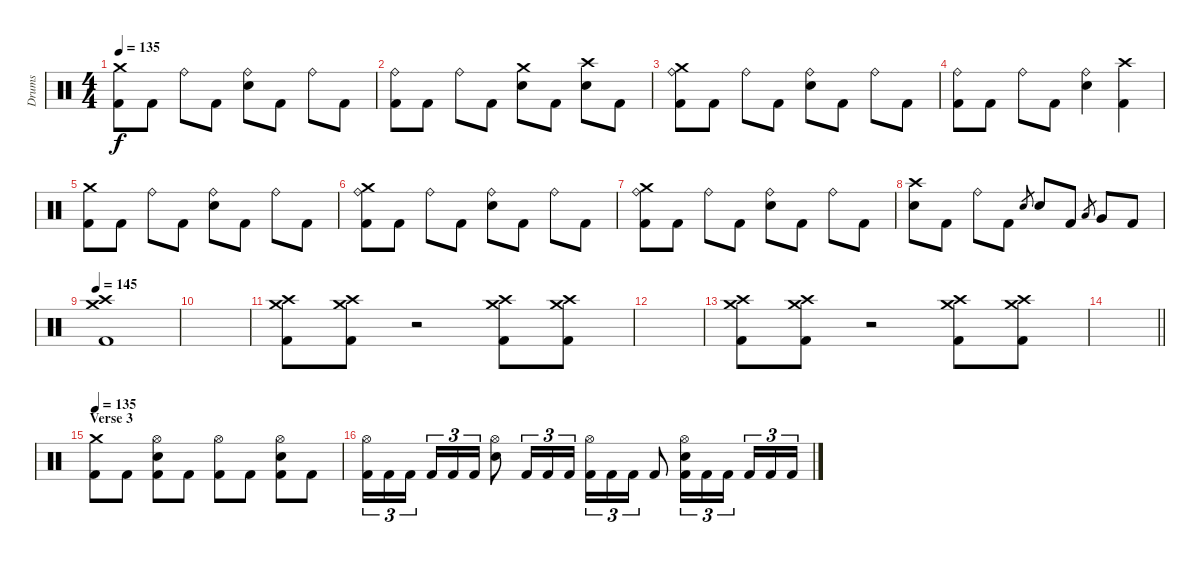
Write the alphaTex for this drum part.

\track ("Drums" "Drums") {instrument percussion}
\staff {score}
\articulation defaults
\ts (4 4)
\tempo 135
\clef neutral
\ks c
("Crash medium (hit)" "Kick (hit) 2").8{dy f} "Kick (hit) 2".8 "Ride (bell)".8 "Kick (hit) 2".8 ("Ride (bell)" "Snare (hit) 2").8 "Kick (hit) 2".8 "Ride (bell)".8 "Kick (hit) 2".8 |
("Ride (bell)" "Kick (hit) 2").8 "Kick (hit) 2".8 "Ride (bell)".8 "Kick (hit) 2".8 ("Crash medium (hit)" "Snare (hit) 2").8 "Kick (hit) 2".8 ("Crash high (hit)" "Snare (hit) 2").8 "Kick (hit) 2".8 |
("Crash medium (hit)" "Ride (bell)" "Kick (hit) 2").8 "Kick (hit) 2".8 "Ride (bell)".8 "Kick (hit) 2".8 ("Ride (bell)" "Snare (hit) 2").8 "Kick (hit) 2".8 "Ride (bell)".8 "Kick (hit) 2".8 |
("Ride (bell)" "Kick (hit) 2").8 "Kick (hit) 2".8 "Ride (bell)".8 "Kick (hit) 2".8 ("Ride (bell)" "Snare (hit) 2").4 ("Crash high (hit)" "Kick (hit) 2").4 |
("Crash medium (hit)" "Kick (hit) 2").8 "Kick (hit) 2".8 "Ride (bell)".8 "Kick (hit) 2".8 ("Ride (bell)" "Snare (hit) 2").8 "Kick (hit) 2".8 "Ride (bell)".8 "Kick (hit) 2".8 |
("Crash medium (hit)" "Ride (bell)" "Kick (hit) 2").8 "Kick (hit) 2".8 "Ride (bell)".8 "Kick (hit) 2".8 ("Ride (bell)" "Snare (hit) 2").8 "Kick (hit) 2".8 "Ride (bell)".8 "Kick (hit) 2".8 |
("Crash medium (hit)" "Ride (bell)" "Kick (hit) 2").8 "Kick (hit) 2".8 "Ride (bell)".8 "Kick (hit) 2".8 ("Ride (bell)" "Snare (hit) 2").8 "Kick (hit) 2".8 "Ride (bell)".8 "Kick (hit) 2".8 |
("Crash high (hit)" "Snare (hit) 2").8 "Kick (hit) 2".8 "Ride (bell)".8 "Kick (hit) 2".8 "Snare (hit) 2".8{gr} "Snare (hit) 2".8 "Kick (hit) 2".8 "Low Tom (hit)".8{gr} "Very Low Tom (hit)".8 "Kick (hit) 2".8 |
\tempo 145
("Crash medium (hit)" "Crash high (hit)" "Kick (hit) 2").1 |
|
("Crash medium (hit)" "Crash high (hit)" "Kick (hit) 2").8 ("Crash high (hit)" "Crash medium (hit)" "Kick (hit) 2").8 r.2 ("Crash medium (hit)" "Crash high (hit)" "Kick (hit) 2").8 ("Crash high (hit)" "Crash medium (hit)" "Kick (hit) 2").8 |
|
("Crash medium (hit)" "Crash high (hit)" "Kick (hit) 2").8 ("Crash high (hit)" "Crash medium (hit)" "Kick (hit) 2").8 r.2 ("Crash medium (hit)" "Crash high (hit)" "Kick (hit) 2").8 ("Crash high (hit)" "Crash medium (hit)" "Kick (hit) 2").8 |
\barLineRight lightlight
|
\section ("" "Verse 3")
\tempo 135
("Crash medium (hit)" "Kick (hit) 2").8 "Kick (hit) 2".8 ("Hi-Hat (open)" "Snare (hit) 2" "Kick (hit) 2").8 "Kick (hit) 2".8 ("Hi-Hat (open)" "Kick (hit) 2").8 "Kick (hit) 2".8 ("Hi-Hat (open)" "Snare (hit) 2" "Kick (hit) 2").8 "Kick (hit) 2".8 |
("Hi-Hat (open)" "Kick (hit) 2").16{tu (3 2)} "Kick (hit) 2".16{tu (3 2)} "Kick (hit) 2".16{tu (3 2) beam splitsecondary} "Kick (hit) 2".16{tu (3 2)} "Kick (hit) 2".16{tu (3 2)} "Kick (hit) 2".16{tu (3 2)} ("Hi-Hat (open)" "Snare (hit) 2").8 "Kick (hit) 2".16{tu (3 2)} "Kick (hit) 2".16{tu (3 2)} "Kick (hit) 2".16{tu (3 2)} ("Hi-Hat (open)" "Kick (hit) 2").16{tu (3 2)} "Kick (hit) 2".16{tu (3 2)} "Kick (hit) 2".16{tu (3 2)} "Kick (hit) 2".8 ("Hi-Hat (open)" "Snare (hit) 2" "Kick (hit) 2").16{tu (3 2)} "Kick (hit) 2".16{tu (3 2)} "Kick (hit) 2".16{tu (3 2) beam splitsecondary} "Kick (hit) 2".16{tu (3 2)} "Kick (hit) 2".16{tu (3 2)} "Kick (hit) 2".16{tu (3 2)}
